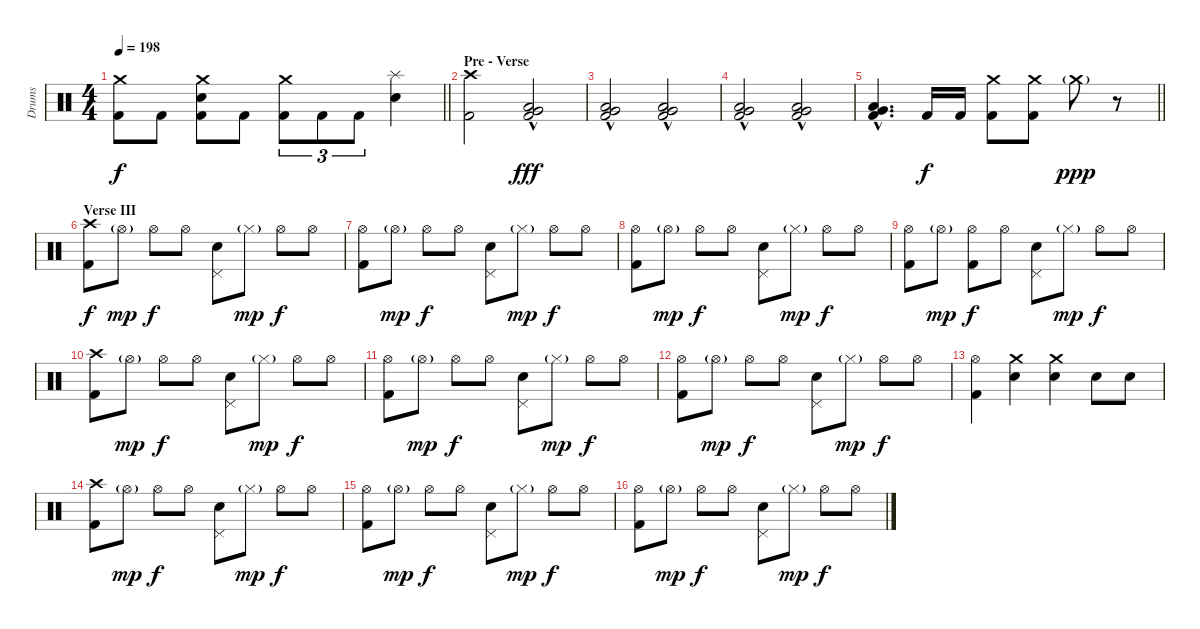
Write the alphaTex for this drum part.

\track ("Drums" "Drums") {instrument percussion}
\staff {score}
\articulation defaults
\ts (4 4)
\tempo 198
\clef neutral
\barLineRight lightlight
\ks c
("Crash medium (hit)" "Kick (hit) 2").8{dy f} "Kick (hit) 2".8 ("Crash medium (hit)" "Electric Snare (hit)" "Kick (hit) 2").8 "Kick (hit) 2".8 ("Crash medium (hit)" "Kick (hit) 2").8{tu (3 2)} "Kick (hit) 2".8{tu (3 2)} "Kick (hit) 2".8{tu (3 2)} ("Splash (hit)" "Electric Snare (hit)").4 |
\section ("" "Pre - Verse")
("Crash high (hit)" "Kick (hit) 2").2 ("Very Low Tom (hit)"{hac} "Low Floor Tom (hit)"{hac} "Kick (hit) 2"{hac}).2{dy fff} |
("Very Low Tom (hit)"{hac} "Low Floor Tom (hit)"{hac} "Kick (hit) 2"{hac}).2 ("Very Low Tom (hit)"{hac} "Low Floor Tom (hit)"{hac} "Kick (hit) 2"{hac}).2 |
("Very Low Tom (hit)"{hac} "Low Floor Tom (hit)"{hac} "Kick (hit) 2"{hac}).2 ("Very Low Tom (hit)"{hac} "Low Floor Tom (hit)"{hac} "Kick (hit) 2"{hac}).2 |
\barLineRight lightlight
("Very Low Tom (hit)"{hac} "Low Floor Tom (hit)"{hac} "Kick (hit) 2"{hac}).4{d} "Kick (hit) 2".16{dy f} "Kick (hit) 2".16 ("Crash medium (hit)" "Kick (hit) 2").8 ("Crash medium (hit)" "Kick (hit) 2").8 "Crash medium (hit)"{g}.8{dy ppp} r.8 |
\section ("" "Verse III")
("Crash high (hit)" "Kick (hit) 2").8{dy f} "Hi-Hat (open)"{g}.8{dy mp} "Hi-Hat (open)".8{dy f} "Hi-Hat (open)".8 ("Pedal Hi-Hat (hit)" "Electric Snare (hit)").8 "Hi-Hat (closed)"{g}.8{dy mp} "Hi-Hat (open)".8{dy f} "Hi-Hat (open)".8 |
("Hi-Hat (open)" "Kick (hit) 2").8 "Hi-Hat (open)"{g}.8{dy mp} "Hi-Hat (open)".8{dy f} "Hi-Hat (open)".8 ("Pedal Hi-Hat (hit)" "Electric Snare (hit)").8 "Hi-Hat (closed)"{g}.8{dy mp} "Hi-Hat (open)".8{dy f} "Hi-Hat (open)".8 |
("Hi-Hat (open)" "Kick (hit) 2").8 "Hi-Hat (open)"{g}.8{dy mp} "Hi-Hat (open)".8{dy f} "Hi-Hat (open)".8 ("Pedal Hi-Hat (hit)" "Electric Snare (hit)").8 "Hi-Hat (closed)"{g}.8{dy mp} "Hi-Hat (open)".8{dy f} "Hi-Hat (open)".8 |
("Hi-Hat (open)" "Kick (hit) 2").8 "Hi-Hat (open)"{g}.8{dy mp} ("Hi-Hat (open)" "Kick (hit) 2").8{dy f} "Hi-Hat (open)".8 ("Pedal Hi-Hat (hit)" "Electric Snare (hit)").8 "Hi-Hat (closed)"{g}.8{dy mp} "Hi-Hat (open)".8{dy f} "Hi-Hat (open)".8 |
("Crash high (hit)" "Kick (hit) 2").8 "Hi-Hat (open)"{g}.8{dy mp} "Hi-Hat (open)".8{dy f} "Hi-Hat (open)".8 ("Pedal Hi-Hat (hit)" "Electric Snare (hit)").8 "Hi-Hat (closed)"{g}.8{dy mp} "Hi-Hat (open)".8{dy f} "Hi-Hat (open)".8 |
("Hi-Hat (open)" "Kick (hit) 2").8 "Hi-Hat (open)"{g}.8{dy mp} "Hi-Hat (open)".8{dy f} "Hi-Hat (open)".8 ("Pedal Hi-Hat (hit)" "Electric Snare (hit)").8 "Hi-Hat (closed)"{g}.8{dy mp} "Hi-Hat (open)".8{dy f} "Hi-Hat (open)".8 |
("Hi-Hat (open)" "Kick (hit) 2").8 "Hi-Hat (open)"{g}.8{dy mp} "Hi-Hat (open)".8{dy f} "Hi-Hat (open)".8 ("Pedal Hi-Hat (hit)" "Electric Snare (hit)").8 "Hi-Hat (closed)"{g}.8{dy mp} "Hi-Hat (open)".8{dy f} "Hi-Hat (open)".8 |
("Hi-Hat (open)" "Kick (hit) 2").4 ("Crash medium (hit)" "Electric Snare (hit)").4 ("Crash medium (hit)" "Electric Snare (hit)").4 "Electric Snare (hit)".8 "Electric Snare (hit)".8 |
("Crash high (hit)" "Kick (hit) 2").8 "Hi-Hat (open)"{g}.8{dy mp} "Hi-Hat (open)".8{dy f} "Hi-Hat (open)".8 ("Pedal Hi-Hat (hit)" "Electric Snare (hit)").8 "Hi-Hat (closed)"{g}.8{dy mp} "Hi-Hat (open)".8{dy f} "Hi-Hat (open)".8 |
("Hi-Hat (open)" "Kick (hit) 2").8 "Hi-Hat (open)"{g}.8{dy mp} "Hi-Hat (open)".8{dy f} "Hi-Hat (open)".8 ("Pedal Hi-Hat (hit)" "Electric Snare (hit)").8 "Hi-Hat (closed)"{g}.8{dy mp} "Hi-Hat (open)".8{dy f} "Hi-Hat (open)".8 |
("Hi-Hat (open)" "Kick (hit) 2").8 "Hi-Hat (open)"{g}.8{dy mp} "Hi-Hat (open)".8{dy f} "Hi-Hat (open)".8 ("Pedal Hi-Hat (hit)" "Electric Snare (hit)").8 "Hi-Hat (closed)"{g}.8{dy mp} "Hi-Hat (open)".8{dy f} "Hi-Hat (open)".8
